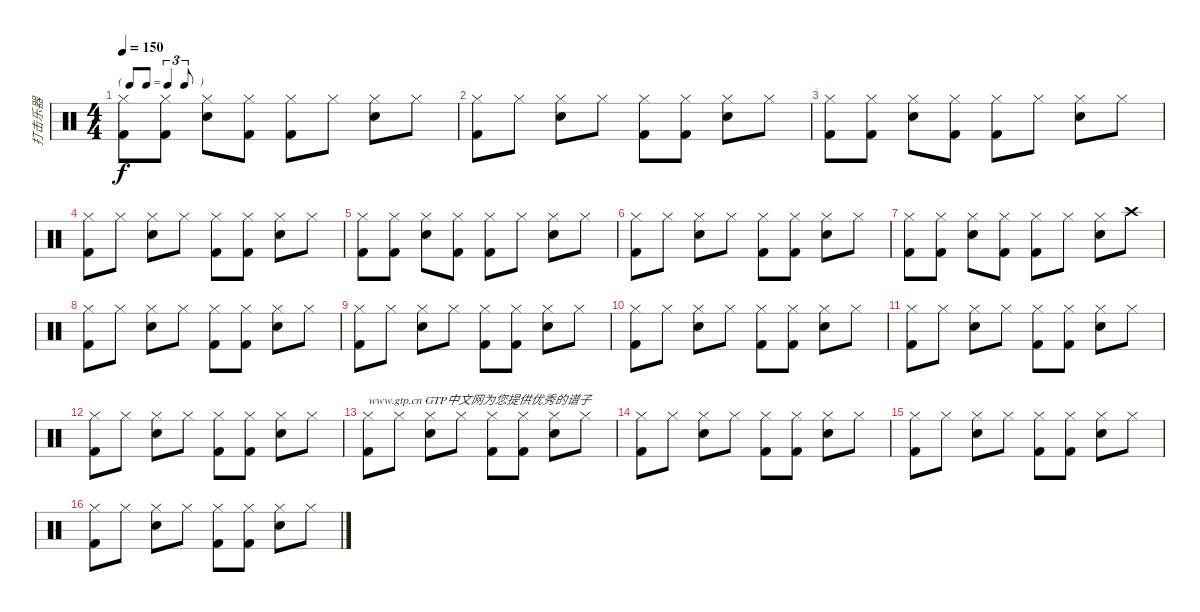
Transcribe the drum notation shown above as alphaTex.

\track ("打击乐器" "打击乐器") {instrument percussion}
\staff {score}
\articulation defaults
\ts (4 4)
\tf triplet8th
\tempo 150
\clef neutral
\ks c
("Hi-Hat (closed)" "Kick (hit) 2").8{dy f} ("Hi-Hat (closed)" "Kick (hit) 2").8 ("Hi-Hat (closed)" "Snare (hit) 2").8 ("Hi-Hat (closed)" "Kick (hit) 2").8 ("Hi-Hat (closed)" "Kick (hit) 2").8 "Hi-Hat (closed)".8 ("Hi-Hat (closed)" "Snare (hit) 2").8 "Hi-Hat (closed)".8 |
("Hi-Hat (closed)" "Kick (hit) 2").8 "Hi-Hat (closed)".8 ("Hi-Hat (closed)" "Snare (hit) 2").8 "Hi-Hat (closed)".8 ("Hi-Hat (closed)" "Kick (hit) 2").8 ("Hi-Hat (closed)" "Kick (hit) 2").8 ("Hi-Hat (closed)" "Snare (hit) 2").8 "Hi-Hat (closed)".8 |
("Hi-Hat (closed)" "Kick (hit) 2").8 ("Hi-Hat (closed)" "Kick (hit) 2").8 ("Hi-Hat (closed)" "Snare (hit) 2").8 ("Hi-Hat (closed)" "Kick (hit) 2").8 ("Hi-Hat (closed)" "Kick (hit) 2").8 "Hi-Hat (closed)".8 ("Hi-Hat (closed)" "Snare (hit) 2").8 "Hi-Hat (closed)".8 |
("Hi-Hat (closed)" "Kick (hit) 2").8 "Hi-Hat (closed)".8 ("Hi-Hat (closed)" "Snare (hit) 2").8 "Hi-Hat (closed)".8 ("Hi-Hat (closed)" "Kick (hit) 2").8 ("Hi-Hat (closed)" "Kick (hit) 2").8 ("Hi-Hat (closed)" "Snare (hit) 2").8 "Hi-Hat (closed)".8 |
("Hi-Hat (closed)" "Kick (hit) 2").8 ("Hi-Hat (closed)" "Kick (hit) 2").8 ("Hi-Hat (closed)" "Snare (hit) 2").8 ("Hi-Hat (closed)" "Kick (hit) 2").8 ("Hi-Hat (closed)" "Kick (hit) 2").8 "Hi-Hat (closed)".8 ("Hi-Hat (closed)" "Snare (hit) 2").8 "Hi-Hat (closed)".8 |
("Hi-Hat (closed)" "Kick (hit) 2").8 "Hi-Hat (closed)".8 ("Hi-Hat (closed)" "Snare (hit) 2").8 "Hi-Hat (closed)".8 ("Hi-Hat (closed)" "Kick (hit) 2").8 ("Hi-Hat (closed)" "Kick (hit) 2").8 ("Hi-Hat (closed)" "Snare (hit) 2").8 "Hi-Hat (closed)".8 |
("Hi-Hat (closed)" "Kick (hit) 2").8 ("Hi-Hat (closed)" "Kick (hit) 2").8 ("Hi-Hat (closed)" "Snare (hit) 2").8 ("Hi-Hat (closed)" "Kick (hit) 2").8 ("Hi-Hat (closed)" "Kick (hit) 2").8 "Hi-Hat (closed)".8 ("Hi-Hat (closed)" "Snare (hit) 2").8 "Crash high (hit)".8 |
("Hi-Hat (closed)" "Kick (hit) 2").8 "Hi-Hat (closed)".8 ("Hi-Hat (closed)" "Snare (hit) 2").8 "Hi-Hat (closed)".8 ("Hi-Hat (closed)" "Kick (hit) 2").8 ("Hi-Hat (closed)" "Kick (hit) 2").8 ("Hi-Hat (closed)" "Snare (hit) 2").8 "Hi-Hat (closed)".8 |
("Hi-Hat (closed)" "Kick (hit) 2").8 "Hi-Hat (closed)".8 ("Hi-Hat (closed)" "Snare (hit) 2").8 "Hi-Hat (closed)".8 ("Hi-Hat (closed)" "Kick (hit) 2").8 ("Hi-Hat (closed)" "Kick (hit) 2").8 ("Hi-Hat (closed)" "Snare (hit) 2").8 "Hi-Hat (closed)".8 |
("Hi-Hat (closed)" "Kick (hit) 2").8 "Hi-Hat (closed)".8 ("Hi-Hat (closed)" "Snare (hit) 2").8 "Hi-Hat (closed)".8 ("Hi-Hat (closed)" "Kick (hit) 2").8 ("Hi-Hat (closed)" "Kick (hit) 2").8 ("Hi-Hat (closed)" "Snare (hit) 2").8 "Hi-Hat (closed)".8 |
("Hi-Hat (closed)" "Kick (hit) 2").8 "Hi-Hat (closed)".8 ("Hi-Hat (closed)" "Snare (hit) 2").8 "Hi-Hat (closed)".8 ("Hi-Hat (closed)" "Kick (hit) 2").8 ("Hi-Hat (closed)" "Kick (hit) 2").8 ("Hi-Hat (closed)" "Snare (hit) 2").8 "Hi-Hat (closed)".8 |
("Hi-Hat (closed)" "Kick (hit) 2").8 "Hi-Hat (closed)".8 ("Hi-Hat (closed)" "Snare (hit) 2").8 "Hi-Hat (closed)".8 ("Hi-Hat (closed)" "Kick (hit) 2").8 ("Hi-Hat (closed)" "Kick (hit) 2").8 ("Hi-Hat (closed)" "Snare (hit) 2").8 "Hi-Hat (closed)".8 |
("Hi-Hat (closed)" "Kick (hit) 2").8{txt "www.gtp.cn GTP中文网为您提供优秀的谱子"} "Hi-Hat (closed)".8 ("Hi-Hat (closed)" "Snare (hit) 2").8 "Hi-Hat (closed)".8 ("Hi-Hat (closed)" "Kick (hit) 2").8 ("Hi-Hat (closed)" "Kick (hit) 2").8 ("Hi-Hat (closed)" "Snare (hit) 2").8 "Hi-Hat (closed)".8 |
("Hi-Hat (closed)" "Kick (hit) 2").8 "Hi-Hat (closed)".8 ("Hi-Hat (closed)" "Snare (hit) 2").8 "Hi-Hat (closed)".8 ("Hi-Hat (closed)" "Kick (hit) 2").8 ("Hi-Hat (closed)" "Kick (hit) 2").8 ("Hi-Hat (closed)" "Snare (hit) 2").8 "Hi-Hat (closed)".8 |
("Hi-Hat (closed)" "Kick (hit) 2").8 "Hi-Hat (closed)".8 ("Hi-Hat (closed)" "Snare (hit) 2").8 "Hi-Hat (closed)".8 ("Hi-Hat (closed)" "Kick (hit) 2").8 ("Hi-Hat (closed)" "Kick (hit) 2").8 ("Hi-Hat (closed)" "Snare (hit) 2").8 "Hi-Hat (closed)".8 |
("Hi-Hat (closed)" "Kick (hit) 2").8 "Hi-Hat (closed)".8 ("Hi-Hat (closed)" "Snare (hit) 2").8 "Hi-Hat (closed)".8 ("Hi-Hat (closed)" "Kick (hit) 2").8 ("Hi-Hat (closed)" "Kick (hit) 2").8 ("Hi-Hat (closed)" "Snare (hit) 2").8 "Hi-Hat (closed)".8
